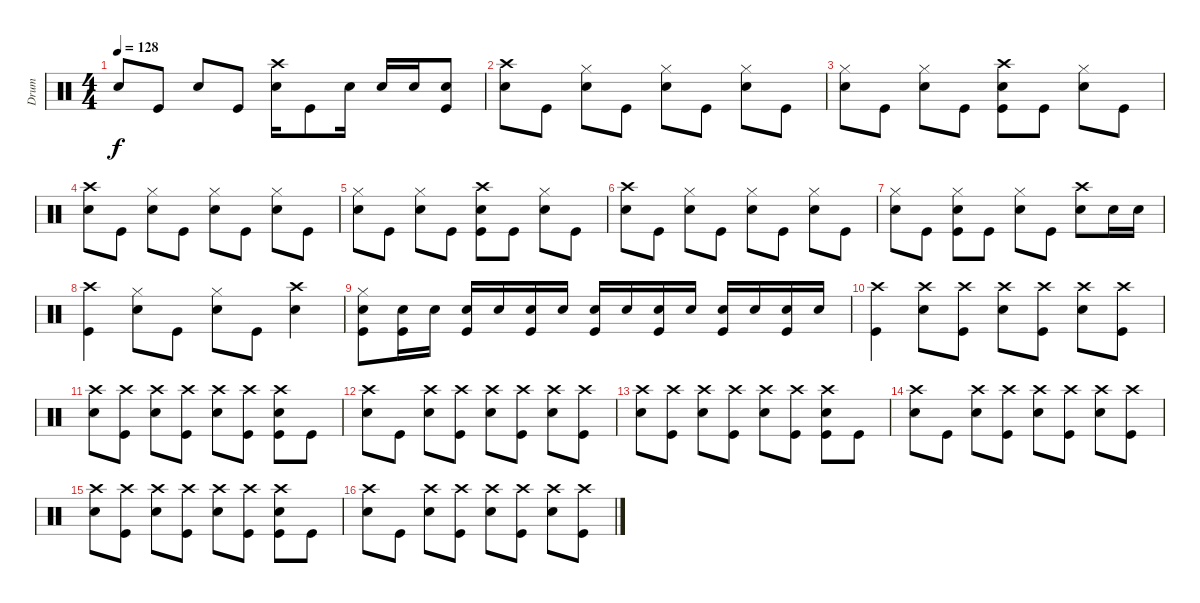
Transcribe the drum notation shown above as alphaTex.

\track ("Drum" "Drum") {instrument percussion}
\staff {score}
\articulation defaults
\ts (4 4)
\tempo 128
\clef neutral
\ks c "Snare (hit) 2".8{dy f} "Kick (hit)".8 "Snare (hit) 2".8 "Kick (hit)".8
("Crash high (hit)" "Snare (hit) 2").16 "Kick (hit)".8 "Snare (hit) 2".16 "Snare (hit) 2".16 "Snare (hit) 2".16 ("Snare (hit) 2" "Kick (hit)").8 |
("Crash high (hit)" "Snare (hit) 2").8 "Kick (hit)".8 ("Hi-Hat (closed)" "Snare (hit) 2").8 "Kick (hit)".8 ("Hi-Hat (closed)" "Snare (hit) 2").8 "Kick (hit)".8 ("Hi-Hat (closed)" "Snare (hit) 2").8 "Kick (hit)".8 |
("Hi-Hat (closed)" "Snare (hit) 2").8 "Kick (hit)".8 ("Hi-Hat (closed)" "Snare (hit) 2").8 "Kick (hit)".8 ("Crash high (hit)" "Snare (hit) 2" "Kick (hit)").8 "Kick (hit)".8 ("Hi-Hat (closed)" "Snare (hit) 2").8 "Kick (hit)".8 |
("Crash high (hit)" "Snare (hit) 2").8 "Kick (hit)".8 ("Hi-Hat (closed)" "Snare (hit) 2").8 "Kick (hit)".8 ("Hi-Hat (closed)" "Snare (hit) 2").8 "Kick (hit)".8 ("Hi-Hat (closed)" "Snare (hit) 2").8 "Kick (hit)".8 |
("Hi-Hat (closed)" "Snare (hit) 2").8 "Kick (hit)".8 ("Hi-Hat (closed)" "Snare (hit) 2").8 "Kick (hit)".8 ("Crash high (hit)" "Snare (hit) 2" "Kick (hit)").8 "Kick (hit)".8 ("Hi-Hat (closed)" "Snare (hit) 2").8 "Kick (hit)".8 |
("Crash high (hit)" "Snare (hit) 2").8 "Kick (hit)".8 ("Hi-Hat (closed)" "Snare (hit) 2").8 "Kick (hit)".8 ("Hi-Hat (closed)" "Snare (hit) 2").8 "Kick (hit)".8 ("Hi-Hat (closed)" "Snare (hit) 2").8 "Kick (hit)".8 |
("Hi-Hat (closed)" "Snare (hit) 2").8 "Kick (hit)".8 ("Hi-Hat (closed)" "Snare (hit) 2" "Kick (hit)").8 "Kick (hit)".8 ("Hi-Hat (closed)" "Snare (hit) 2").8 "Kick (hit)".8 ("Crash high (hit)" "Snare (hit) 2").8 "Snare (hit) 2".16 "Snare (hit) 2".16 |
("Crash high (hit)" "Kick (hit)").4 ("Hi-Hat (closed)" "Snare (hit) 2").8 "Kick (hit)".8 ("Hi-Hat (closed)" "Snare (hit) 2").8 "Kick (hit)".8 ("Crash high (hit)" "Snare (hit) 2").4 |
("Hi-Hat (closed)" "Snare (hit) 2" "Kick (hit)").8 ("Snare (hit) 2" "Kick (hit)").16 "Snare (hit) 2".16 ("Snare (hit) 2" "Kick (hit)").16 "Snare (hit) 2".16 ("Snare (hit) 2" "Kick (hit)").16 "Snare (hit) 2".16 ("Snare (hit) 2" "Kick (hit)").16 "Snare (hit) 2".16 ("Snare (hit) 2" "Kick (hit)").16 "Snare (hit) 2".16 ("Snare (hit) 2" "Kick (hit)").16 "Snare (hit) 2".16 ("Snare (hit) 2" "Kick (hit)").16 "Snare (hit) 2".16 |
("Crash high (hit)" "Kick (hit)").4 ("Crash high (hit)" "Snare (hit) 2").8 ("Crash high (hit)" "Kick (hit)").8 ("Crash high (hit)" "Snare (hit) 2").8 ("Crash high (hit)" "Kick (hit)").8 ("Crash high (hit)" "Snare (hit) 2").8 ("Crash high (hit)" "Kick (hit)").8 |
("Crash high (hit)" "Snare (hit) 2").8 ("Crash high (hit)" "Kick (hit)").8 ("Crash high (hit)" "Snare (hit) 2").8 ("Crash high (hit)" "Kick (hit)").8 ("Crash high (hit)" "Snare (hit) 2").8 ("Crash high (hit)" "Kick (hit)").8 ("Crash high (hit)" "Snare (hit) 2" "Kick (hit)").8 "Kick (hit)".8 |
("Crash high (hit)" "Snare (hit) 2").8 "Kick (hit)".8 ("Crash high (hit)" "Snare (hit) 2").8 ("Crash high (hit)" "Kick (hit)").8 ("Crash high (hit)" "Snare (hit) 2").8 ("Crash high (hit)" "Kick (hit)").8 ("Crash high (hit)" "Snare (hit) 2").8 ("Crash high (hit)" "Kick (hit)").8 |
("Crash high (hit)" "Snare (hit) 2").8 ("Crash high (hit)" "Kick (hit)").8 ("Crash high (hit)" "Snare (hit) 2").8 ("Crash high (hit)" "Kick (hit)").8 ("Crash high (hit)" "Snare (hit) 2").8 ("Crash high (hit)" "Kick (hit)").8 ("Crash high (hit)" "Snare (hit) 2" "Kick (hit)").8 "Kick (hit)".8 |
("Crash high (hit)" "Snare (hit) 2").8 "Kick (hit)".8 ("Crash high (hit)" "Snare (hit) 2").8 ("Crash high (hit)" "Kick (hit)").8 ("Crash high (hit)" "Snare (hit) 2").8 ("Crash high (hit)" "Kick (hit)").8 ("Crash high (hit)" "Snare (hit) 2").8 ("Crash high (hit)" "Kick (hit)").8 |
("Crash high (hit)" "Snare (hit) 2").8 ("Crash high (hit)" "Kick (hit)").8 ("Crash high (hit)" "Snare (hit) 2").8 ("Crash high (hit)" "Kick (hit)").8 ("Crash high (hit)" "Snare (hit) 2").8 ("Crash high (hit)" "Kick (hit)").8 ("Crash high (hit)" "Snare (hit) 2" "Kick (hit)").8 "Kick (hit)".8 |
("Crash high (hit)" "Snare (hit) 2").8 "Kick (hit)".8 ("Crash high (hit)" "Snare (hit) 2").8 ("Crash high (hit)" "Kick (hit)").8 ("Crash high (hit)" "Snare (hit) 2").8 ("Crash high (hit)" "Kick (hit)").8 ("Crash high (hit)" "Snare (hit) 2").8 ("Crash high (hit)" "Kick (hit)").8
